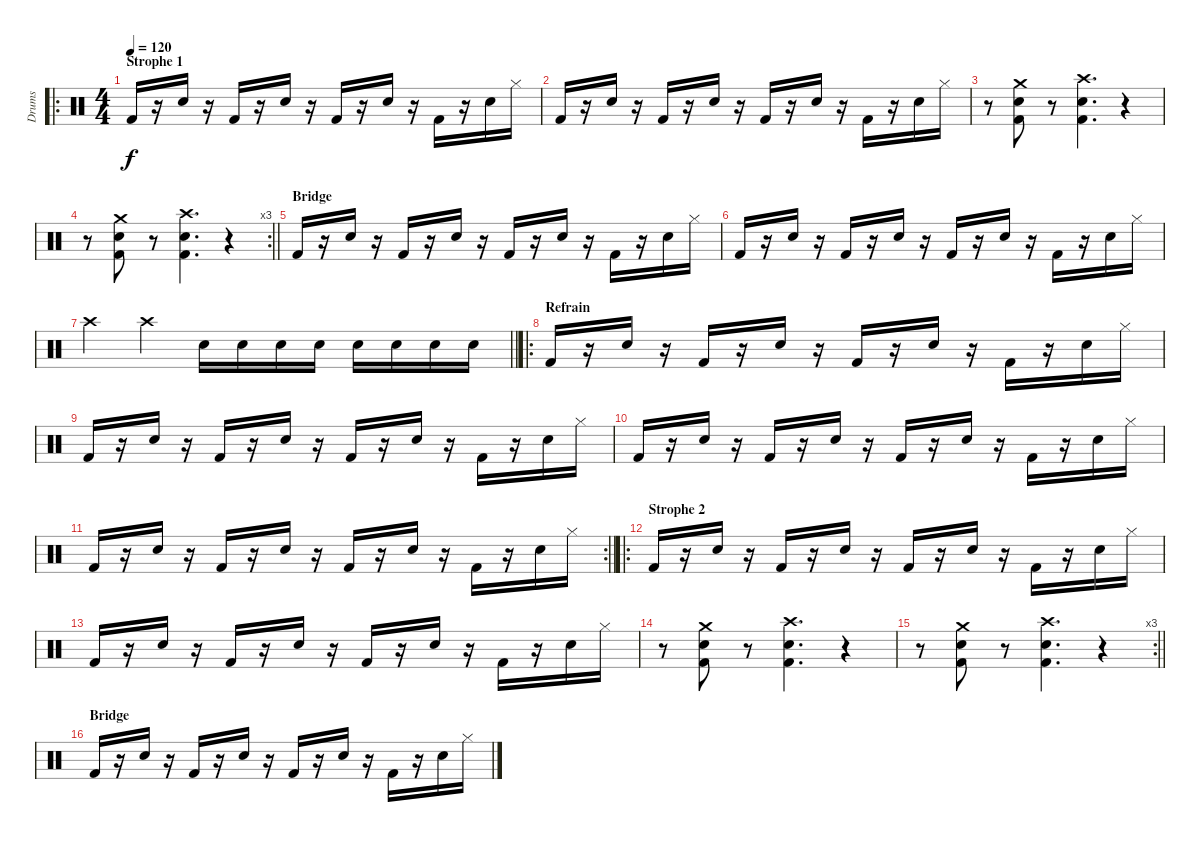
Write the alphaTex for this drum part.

\track ("Drums" "Drums") {instrument percussion}
\staff {score}
\articulation defaults
\ro
\ts (4 4)
\section ("" "Strophe 1")
\tempo 120
\clef neutral
\ks c "Kick (hit) 2".16{dy f}
r.16 "Snare (hit) 2".16 r.16 "Kick (hit) 2".16 r.16 "Snare (hit) 2".16 r.16 "Kick (hit) 2".16 r.16 "Snare (hit) 2".16 r.16 "Kick (hit) 2".16 r.16 "Snare (hit) 2".16 "Hi-Hat (closed)".16 |
"Kick (hit) 2".16 r.16 "Snare (hit) 2".16 r.16 "Kick (hit) 2".16 r.16 "Snare (hit) 2".16 r.16 "Kick (hit) 2".16 r.16 "Snare (hit) 2".16 r.16 "Kick (hit) 2".16 r.16 "Snare (hit) 2".16 "Hi-Hat (closed)".16 |
r.8 ("Crash medium (hit)" "Snare (hit) 2" "Kick (hit) 2").8 r.8 ("Crash high (hit)" "Snare (hit) 2" "Kick (hit) 2").4{d} r.4 |
\rc 3
\barLineRight lightlight
r.8 ("Crash medium (hit)" "Snare (hit) 2" "Kick (hit) 2").8 r.8 ("Crash high (hit)" "Snare (hit) 2" "Kick (hit) 2").4{d} r.4 |
\section ("" "Bridge")
"Kick (hit) 2".16 r.16 "Snare (hit) 2".16 r.16 "Kick (hit) 2".16 r.16 "Snare (hit) 2".16 r.16 "Kick (hit) 2".16 r.16 "Snare (hit) 2".16 r.16 "Kick (hit) 2".16 r.16 "Snare (hit) 2".16 "Hi-Hat (closed)".16 |
"Kick (hit) 2".16 r.16 "Snare (hit) 2".16 r.16 "Kick (hit) 2".16 r.16 "Snare (hit) 2".16 r.16 "Kick (hit) 2".16 r.16 "Snare (hit) 2".16 r.16 "Kick (hit) 2".16 r.16 "Snare (hit) 2".16 "Hi-Hat (closed)".16 |
\barLineRight lightlight "Crash high (hit)".4 "Crash high (hit)".4 "Electric Snare (hit)".16 "Electric Snare (hit)".16 "Electric Snare (hit)".16 "Electric Snare (hit)".16 "Electric Snare (hit)".16 "Electric Snare (hit)".16 "Electric Snare (hit)".16 "Electric Snare (hit)".16
|
\ro
\section ("" "Refrain")
"Kick (hit) 2".16 r.16 "Snare (hit) 2".16 r.16 "Kick (hit) 2".16 r.16 "Snare (hit) 2".16 r.16 "Kick (hit) 2".16 r.16 "Snare (hit) 2".16 r.16 "Kick (hit) 2".16 r.16 "Snare (hit) 2".16 "Hi-Hat (closed)".16 |
"Kick (hit) 2".16 r.16 "Snare (hit) 2".16 r.16 "Kick (hit) 2".16 r.16 "Snare (hit) 2".16 r.16 "Kick (hit) 2".16 r.16 "Snare (hit) 2".16 r.16 "Kick (hit) 2".16 r.16 "Snare (hit) 2".16 "Hi-Hat (closed)".16 |
"Kick (hit) 2".16 r.16 "Snare (hit) 2".16 r.16 "Kick (hit) 2".16 r.16 "Snare (hit) 2".16 r.16 "Kick (hit) 2".16 r.16 "Snare (hit) 2".16 r.16 "Kick (hit) 2".16 r.16 "Snare (hit) 2".16 "Hi-Hat (closed)".16 |
\rc 2
\barLineRight lightlight "Kick (hit) 2".16
r.16 "Snare (hit) 2".16 r.16 "Kick (hit) 2".16 r.16 "Snare (hit) 2".16 r.16 "Kick (hit) 2".16 r.16 "Snare (hit) 2".16 r.16 "Kick (hit) 2".16 r.16 "Snare (hit) 2".16 "Hi-Hat (closed)".16 |
\ro
\section ("" "Strophe 2")
"Kick (hit) 2".16 r.16 "Snare (hit) 2".16 r.16 "Kick (hit) 2".16 r.16 "Snare (hit) 2".16 r.16 "Kick (hit) 2".16 r.16 "Snare (hit) 2".16 r.16 "Kick (hit) 2".16 r.16 "Snare (hit) 2".16 "Hi-Hat (closed)".16 |
"Kick (hit) 2".16 r.16 "Snare (hit) 2".16 r.16 "Kick (hit) 2".16 r.16 "Snare (hit) 2".16 r.16 "Kick (hit) 2".16 r.16 "Snare (hit) 2".16 r.16 "Kick (hit) 2".16 r.16 "Snare (hit) 2".16 "Hi-Hat (closed)".16 |
r.8 ("Crash medium (hit)" "Snare (hit) 2" "Kick (hit) 2").8 r.8 ("Crash high (hit)" "Snare (hit) 2" "Kick (hit) 2").4{d} r.4 |
\rc 3
\barLineRight lightlight
r.8 ("Crash medium (hit)" "Snare (hit) 2" "Kick (hit) 2").8 r.8 ("Crash high (hit)" "Snare (hit) 2" "Kick (hit) 2").4{d} r.4 |
\section ("" "Bridge")
"Kick (hit) 2".16 r.16 "Snare (hit) 2".16 r.16 "Kick (hit) 2".16 r.16 "Snare (hit) 2".16 r.16 "Kick (hit) 2".16 r.16 "Snare (hit) 2".16 r.16 "Kick (hit) 2".16 r.16 "Snare (hit) 2".16 "Hi-Hat (closed)".16
